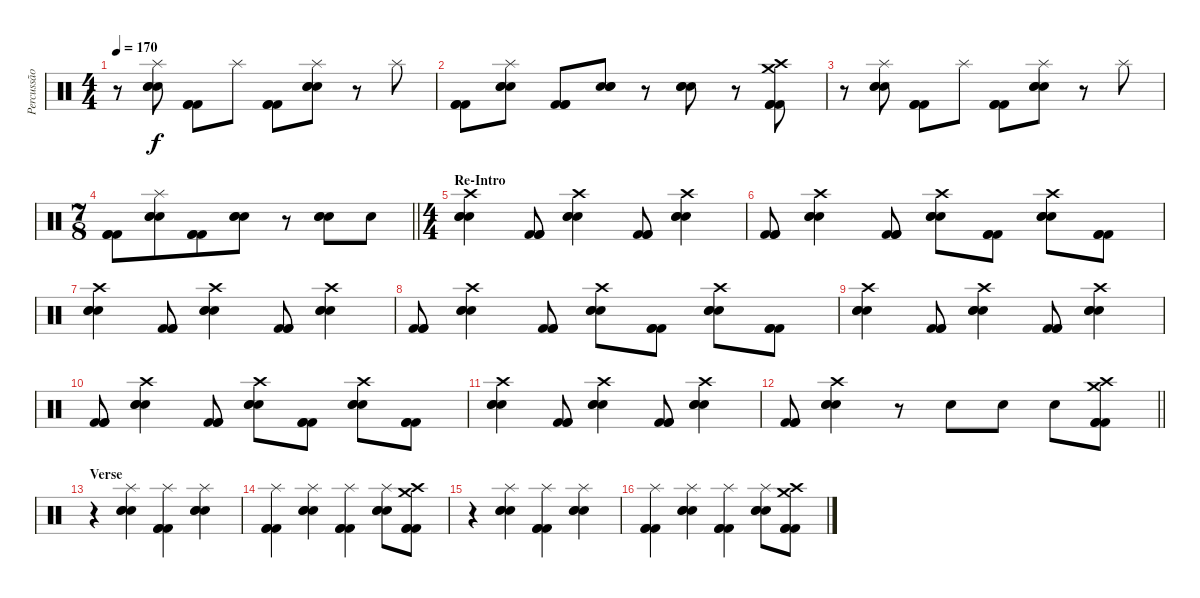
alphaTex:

\track ("Percussão" "Percussão") {instrument percussion}
\staff {score}
\articulation defaults
\ts (4 4)
\tempo 170
\clef neutral
\ks c
r.8{dy f} ("Splash (hit)" "Electric Snare (hit)" "Electric Snare (hit)" "Electric Snare (hit)").8 ("Kick (hit) 2" "Kick (hit) 2" "Kick (hit) 2").8 "Splash (hit)".8 ("Kick (hit) 2" "Kick (hit) 2" "Kick (hit) 2").8 ("Splash (hit)" "Electric Snare (hit)" "Electric Snare (hit)" "Electric Snare (hit)").8 r.8 "Splash (hit)".8 |
("Kick (hit) 2" "Kick (hit) 2" "Kick (hit) 2").8 ("Splash (hit)" "Electric Snare (hit)" "Electric Snare (hit)" "Electric Snare (hit)").8 ("Kick (hit) 2" "Kick (hit) 2" "Kick (hit) 2").8 ("Electric Snare (hit)" "Electric Snare (hit)" "Electric Snare (hit)").8 r.8 ("Electric Snare (hit)" "Electric Snare (hit)" "Electric Snare (hit)").8 r.8 ("Crash high (hit)" "Crash medium (hit)" "Kick (hit) 2" "Kick (hit) 2" "Kick (hit) 2").8 |
r.8 ("Splash (hit)" "Electric Snare (hit)" "Electric Snare (hit)" "Electric Snare (hit)").8 ("Kick (hit) 2" "Kick (hit) 2" "Kick (hit) 2").8 "Splash (hit)".8 ("Kick (hit) 2" "Kick (hit) 2" "Kick (hit) 2").8 ("Splash (hit)" "Electric Snare (hit)" "Electric Snare (hit)" "Electric Snare (hit)").8 r.8 "Splash (hit)".8 |
\ts (7 8)
\barLineRight lightlight
("Kick (hit) 2" "Kick (hit) 2" "Kick (hit) 2").8 ("Splash (hit)" "Electric Snare (hit)" "Electric Snare (hit)" "Electric Snare (hit)").8 ("Kick (hit) 2" "Kick (hit) 2" "Kick (hit) 2").8 ("Electric Snare (hit)" "Electric Snare (hit)" "Electric Snare (hit)").8 r.8 ("Electric Snare (hit)" "Electric Snare (hit)" "Electric Snare (hit)").8 "Electric Snare (hit)".8 |
\ts (4 4)
\section ("" "Re-Intro")
("Crash high (hit)" "Electric Snare (hit)" "Electric Snare (hit)" "Electric Snare (hit)").4 ("Kick (hit) 2" "Kick (hit) 2" "Kick (hit) 2").8 ("Crash high (hit)" "Electric Snare (hit)" "Electric Snare (hit)" "Electric Snare (hit)").4 ("Kick (hit) 2" "Kick (hit) 2" "Kick (hit) 2").8 ("Crash high (hit)" "Electric Snare (hit)" "Electric Snare (hit)" "Electric Snare (hit)").4 |
("Kick (hit) 2" "Kick (hit) 2" "Kick (hit) 2").8 ("Crash high (hit)" "Electric Snare (hit)" "Electric Snare (hit)" "Electric Snare (hit)").4 ("Kick (hit) 2" "Kick (hit) 2" "Kick (hit) 2").8 ("Crash high (hit)" "Electric Snare (hit)" "Electric Snare (hit)" "Electric Snare (hit)").8 ("Kick (hit) 2" "Kick (hit) 2" "Kick (hit) 2").8 ("Crash high (hit)" "Electric Snare (hit)" "Electric Snare (hit)" "Electric Snare (hit)").8 ("Kick (hit) 2" "Kick (hit) 2" "Kick (hit) 2").8 |
("Crash high (hit)" "Electric Snare (hit)" "Electric Snare (hit)" "Electric Snare (hit)").4 ("Kick (hit) 2" "Kick (hit) 2" "Kick (hit) 2").8 ("Crash high (hit)" "Electric Snare (hit)" "Electric Snare (hit)" "Electric Snare (hit)").4 ("Kick (hit) 2" "Kick (hit) 2" "Kick (hit) 2").8 ("Crash high (hit)" "Electric Snare (hit)" "Electric Snare (hit)" "Electric Snare (hit)").4 |
("Kick (hit) 2" "Kick (hit) 2" "Kick (hit) 2").8 ("Crash high (hit)" "Electric Snare (hit)" "Electric Snare (hit)" "Electric Snare (hit)").4 ("Kick (hit) 2" "Kick (hit) 2" "Kick (hit) 2").8 ("Crash high (hit)" "Electric Snare (hit)" "Electric Snare (hit)" "Electric Snare (hit)").8 ("Kick (hit) 2" "Kick (hit) 2" "Kick (hit) 2").8 ("Crash high (hit)" "Electric Snare (hit)" "Electric Snare (hit)" "Electric Snare (hit)").8 ("Kick (hit) 2" "Kick (hit) 2" "Kick (hit) 2").8 |
("Crash high (hit)" "Electric Snare (hit)" "Electric Snare (hit)" "Electric Snare (hit)").4 ("Kick (hit) 2" "Kick (hit) 2" "Kick (hit) 2").8 ("Crash high (hit)" "Electric Snare (hit)" "Electric Snare (hit)" "Electric Snare (hit)").4 ("Kick (hit) 2" "Kick (hit) 2" "Kick (hit) 2").8 ("Crash high (hit)" "Electric Snare (hit)" "Electric Snare (hit)" "Electric Snare (hit)").4 |
("Kick (hit) 2" "Kick (hit) 2" "Kick (hit) 2").8 ("Crash high (hit)" "Electric Snare (hit)" "Electric Snare (hit)" "Electric Snare (hit)").4 ("Kick (hit) 2" "Kick (hit) 2" "Kick (hit) 2").8 ("Crash high (hit)" "Electric Snare (hit)" "Electric Snare (hit)" "Electric Snare (hit)").8 ("Kick (hit) 2" "Kick (hit) 2" "Kick (hit) 2").8 ("Crash high (hit)" "Electric Snare (hit)" "Electric Snare (hit)" "Electric Snare (hit)").8 ("Kick (hit) 2" "Kick (hit) 2" "Kick (hit) 2").8 |
("Crash high (hit)" "Electric Snare (hit)" "Electric Snare (hit)" "Electric Snare (hit)").4 ("Kick (hit) 2" "Kick (hit) 2" "Kick (hit) 2").8 ("Crash high (hit)" "Electric Snare (hit)" "Electric Snare (hit)" "Electric Snare (hit)").4 ("Kick (hit) 2" "Kick (hit) 2" "Kick (hit) 2").8 ("Crash high (hit)" "Electric Snare (hit)" "Electric Snare (hit)" "Electric Snare (hit)").4 |
\barLineRight lightlight
("Kick (hit) 2" "Kick (hit) 2" "Kick (hit) 2").8 ("Crash high (hit)" "Electric Snare (hit)" "Electric Snare (hit)" "Electric Snare (hit)").4 r.8 "Electric Snare (hit)".8 "Electric Snare (hit)".8 "Electric Snare (hit)".8 ("Crash high (hit)" "Crash medium (hit)" "Kick (hit) 2" "Kick (hit) 2" "Kick (hit) 2").8 |
\section ("" "Verse")
r.4 ("Splash (hit)" "Electric Snare (hit)" "Electric Snare (hit)" "Electric Snare (hit)").4 ("Splash (hit)" "Kick (hit) 2" "Kick (hit) 2" "Kick (hit) 2").4 ("Splash (hit)" "Electric Snare (hit)" "Electric Snare (hit)" "Electric Snare (hit)").4 |
("Splash (hit)" "Kick (hit) 2" "Kick (hit) 2" "Kick (hit) 2").4 ("Splash (hit)" "Electric Snare (hit)" "Electric Snare (hit)" "Electric Snare (hit)").4 ("Splash (hit)" "Kick (hit) 2" "Kick (hit) 2" "Kick (hit) 2").4 ("Splash (hit)" "Electric Snare (hit)" "Electric Snare (hit)" "Electric Snare (hit)").8 ("Crash high (hit)" "Crash medium (hit)" "Kick (hit) 2" "Kick (hit) 2" "Kick (hit) 2").8 |
r.4 ("Splash (hit)" "Electric Snare (hit)" "Electric Snare (hit)" "Electric Snare (hit)").4 ("Splash (hit)" "Kick (hit) 2" "Kick (hit) 2" "Kick (hit) 2").4 ("Splash (hit)" "Electric Snare (hit)" "Electric Snare (hit)" "Electric Snare (hit)").4 |
("Splash (hit)" "Kick (hit) 2" "Kick (hit) 2" "Kick (hit) 2").4 ("Splash (hit)" "Electric Snare (hit)" "Electric Snare (hit)" "Electric Snare (hit)").4 ("Splash (hit)" "Kick (hit) 2" "Kick (hit) 2" "Kick (hit) 2").4 ("Splash (hit)" "Electric Snare (hit)" "Electric Snare (hit)" "Electric Snare (hit)").8 ("Crash high (hit)" "Crash medium (hit)" "Kick (hit) 2" "Kick (hit) 2" "Kick (hit) 2").8
